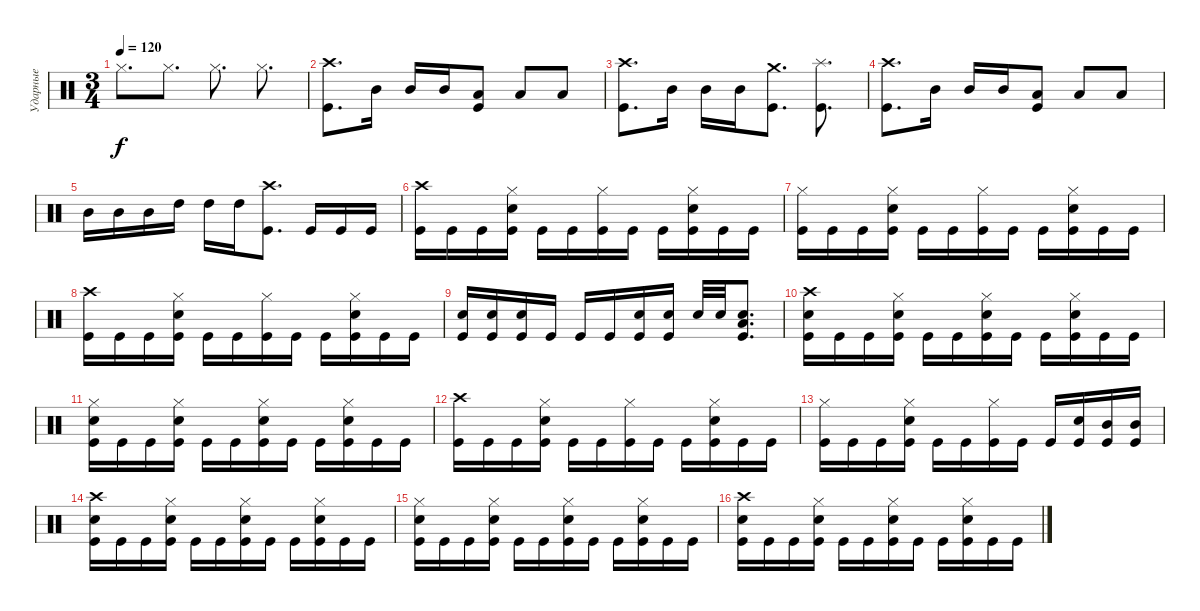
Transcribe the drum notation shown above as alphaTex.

\track ("Ударные" "Ударные") {instrument percussion}
\staff {score}
\articulation defaults
\ts (3 4)
\tempo 120
\clef neutral
\ks c "Hi-Hat (closed)".8{d dy f} "Hi-Hat (closed)".8{d} "Hi-Hat (closed)".8{d} "Hi-Hat (closed)".8{d}
|
("Crash high (hit)" "Kick (hit)").8{d} "Mid Tom (hit)".16 "Mid Tom (hit)".16 "Mid Tom (hit)".16 ("Low Tom (hit)" "Kick (hit)").8 "Low Tom (hit)".8 "Low Tom (hit)".8 |
("Crash high (hit)" "Kick (hit)").8{d} "Mid Tom (hit)".16 "Mid Tom (hit)".16 "Mid Tom (hit)".16 ("Crash medium (hit)" "Kick (hit)").8{d} ("Splash (hit)" "Kick (hit)").8{d} |
("Crash high (hit)" "Kick (hit)").8{d} "Mid Tom (hit)".16 "Mid Tom (hit)".16 "Mid Tom (hit)".16 ("Low Tom (hit)" "Kick (hit)").8 "Low Tom (hit)".8 "Low Tom (hit)".8 |
"Mid Tom (hit)".16 "Mid Tom (hit)".16 "Mid Tom (hit)".16 "High Tom (hit)".16 "High Tom (hit)".16 "High Tom (hit)".16 ("Crash high (hit)" "Kick (hit)").8{d} "Kick (hit)".16 "Kick (hit)".16 "Kick (hit)".16 |
("Crash high (hit)" "Kick (hit)").16 "Kick (hit)".16 "Kick (hit)".16 ("Hi-Hat (closed)" "Electric Snare (hit)" "Kick (hit)").16 "Kick (hit)".16 "Kick (hit)".16 ("Hi-Hat (closed)" "Kick (hit)").16 "Kick (hit)".16 "Kick (hit)".16 ("Hi-Hat (closed)" "Electric Snare (hit)" "Kick (hit)").16 "Kick (hit)".16 "Kick (hit)".16 |
("Hi-Hat (closed)" "Kick (hit)").16 "Kick (hit)".16 "Kick (hit)".16 ("Hi-Hat (closed)" "Electric Snare (hit)" "Kick (hit)").16 "Kick (hit)".16 "Kick (hit)".16 ("Hi-Hat (closed)" "Kick (hit)").16 "Kick (hit)".16 "Kick (hit)".16 ("Hi-Hat (closed)" "Electric Snare (hit)" "Kick (hit)").16 "Kick (hit)".16 "Kick (hit)".16 |
("Crash high (hit)" "Kick (hit)").16 "Kick (hit)".16 "Kick (hit)".16 ("Hi-Hat (closed)" "Electric Snare (hit)" "Kick (hit)").16 "Kick (hit)".16 "Kick (hit)".16 ("Hi-Hat (closed)" "Kick (hit)").16 "Kick (hit)".16 "Kick (hit)".16 ("Hi-Hat (closed)" "Electric Snare (hit)" "Kick (hit)").16 "Kick (hit)".16 "Kick (hit)".16 |
("Electric Snare (hit)" "Kick (hit)").16 ("Electric Snare (hit)" "Kick (hit)").16 ("Electric Snare (hit)" "Kick (hit)").16 "Kick (hit)".16 "Kick (hit)".16 "Kick (hit)".16 ("Electric Snare (hit)" "Kick (hit)").16 ("Electric Snare (hit)" "Kick (hit)").16 "Electric Snare (hit)".32 "Electric Snare (hit)".32 ("Electric Snare (hit)" "Low Tom (hit)" "Kick (hit)").8{d} |
("Crash high (hit)" "Electric Snare (hit)" "Kick (hit)").16 "Kick (hit)".16 "Kick (hit)".16 ("Hi-Hat (closed)" "Electric Snare (hit)" "Kick (hit)").16 "Kick (hit)".16 "Kick (hit)".16 ("Hi-Hat (closed)" "Electric Snare (hit)" "Kick (hit)").16 "Kick (hit)".16 "Kick (hit)".16 ("Hi-Hat (closed)" "Electric Snare (hit)" "Kick (hit)").16 "Kick (hit)".16 "Kick (hit)".16 |
("Hi-Hat (closed)" "Electric Snare (hit)" "Kick (hit)").16 "Kick (hit)".16 "Kick (hit)".16 ("Hi-Hat (closed)" "Electric Snare (hit)" "Kick (hit)").16 "Kick (hit)".16 "Kick (hit)".16 ("Hi-Hat (closed)" "Electric Snare (hit)" "Kick (hit)").16 "Kick (hit)".16 "Kick (hit)".16 ("Hi-Hat (closed)" "Electric Snare (hit)" "Kick (hit)").16 "Kick (hit)".16 "Kick (hit)".16 |
("Crash high (hit)" "Kick (hit)").16 "Kick (hit)".16 "Kick (hit)".16 ("Hi-Hat (closed)" "Electric Snare (hit)" "Kick (hit)").16 "Kick (hit)".16 "Kick (hit)".16 ("Hi-Hat (closed)" "Kick (hit)").16 "Kick (hit)".16 "Kick (hit)".16 ("Hi-Hat (closed)" "Electric Snare (hit)" "Kick (hit)").16 "Kick (hit)".16 "Kick (hit)".16 |
("Hi-Hat (closed)" "Kick (hit)").16 "Kick (hit)".16 "Kick (hit)".16 ("Hi-Hat (closed)" "Electric Snare (hit)" "Kick (hit)").16 "Kick (hit)".16 "Kick (hit)".16 ("Hi-Hat (closed)" "Kick (hit)").16 "Kick (hit)".16 "Kick (hit)".16 ("Electric Snare (hit)" "Kick (hit)").16 ("Mid Tom (hit)" "Kick (hit)").16 ("Mid Tom (hit)" "Kick (hit)").16 |
("Crash high (hit)" "Electric Snare (hit)" "Kick (hit)").16 "Kick (hit)".16 "Kick (hit)".16 ("Hi-Hat (closed)" "Electric Snare (hit)" "Kick (hit)").16 "Kick (hit)".16 "Kick (hit)".16 ("Hi-Hat (closed)" "Electric Snare (hit)" "Kick (hit)").16 "Kick (hit)".16 "Kick (hit)".16 ("Hi-Hat (closed)" "Electric Snare (hit)" "Kick (hit)").16 "Kick (hit)".16 "Kick (hit)".16 |
("Hi-Hat (closed)" "Electric Snare (hit)" "Kick (hit)").16 "Kick (hit)".16 "Kick (hit)".16 ("Hi-Hat (closed)" "Electric Snare (hit)" "Kick (hit)").16 "Kick (hit)".16 "Kick (hit)".16 ("Hi-Hat (closed)" "Electric Snare (hit)" "Kick (hit)").16 "Kick (hit)".16 "Kick (hit)".16 ("Hi-Hat (closed)" "Electric Snare (hit)" "Kick (hit)").16 "Kick (hit)".16 "Kick (hit)".16 |
("Crash high (hit)" "Electric Snare (hit)" "Kick (hit)").16 "Kick (hit)".16 "Kick (hit)".16 ("Hi-Hat (closed)" "Electric Snare (hit)" "Kick (hit)").16 "Kick (hit)".16 "Kick (hit)".16 ("Hi-Hat (closed)" "Electric Snare (hit)" "Kick (hit)").16 "Kick (hit)".16 "Kick (hit)".16 ("Hi-Hat (closed)" "Electric Snare (hit)" "Kick (hit)").16 "Kick (hit)".16 "Kick (hit)".16
